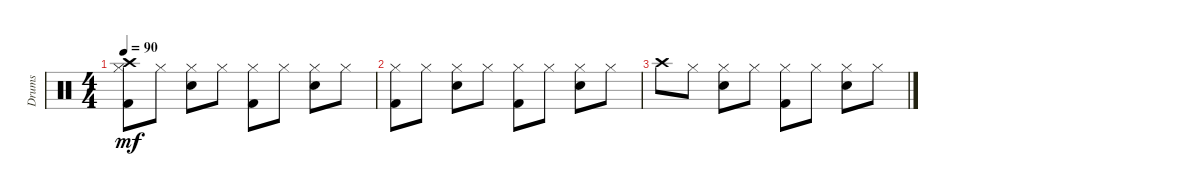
\track ("Drums" "Drums") {instrument percussion}
\staff {score}
\articulation defaults
\ts (4 4)
\tempo 90
\clef neutral
\ks c
("Hi-Hat (closed)" "Crash high (hit)" "Kick (hit) 2").8{dy mf} "Hi-Hat (closed)".8 ("Hi-Hat (closed)" "Snare (hit) 2").8 "Hi-Hat (closed)".8 ("Hi-Hat (closed)" "Kick (hit) 2").8 "Hi-Hat (closed)".8 ("Hi-Hat (closed)" "Snare (hit) 2").8 "Hi-Hat (closed)".8 |
("Hi-Hat (closed)" "Kick (hit) 2").8 "Hi-Hat (closed)".8 ("Hi-Hat (closed)" "Snare (hit) 2").8 "Hi-Hat (closed)".8 ("Hi-Hat (closed)" "Kick (hit) 2").8 "Hi-Hat (closed)".8 ("Hi-Hat (closed)" "Snare (hit) 2").8 "Hi-Hat (closed)".8 |
"Crash high (hit)".8 "Hi-Hat (closed)".8 ("Hi-Hat (closed)" "Snare (hit) 2").8 "Hi-Hat (closed)".8 ("Hi-Hat (closed)" "Kick (hit) 2").8 "Hi-Hat (closed)".8 ("Hi-Hat (closed)" "Snare (hit) 2").8 "Hi-Hat (closed)".8
